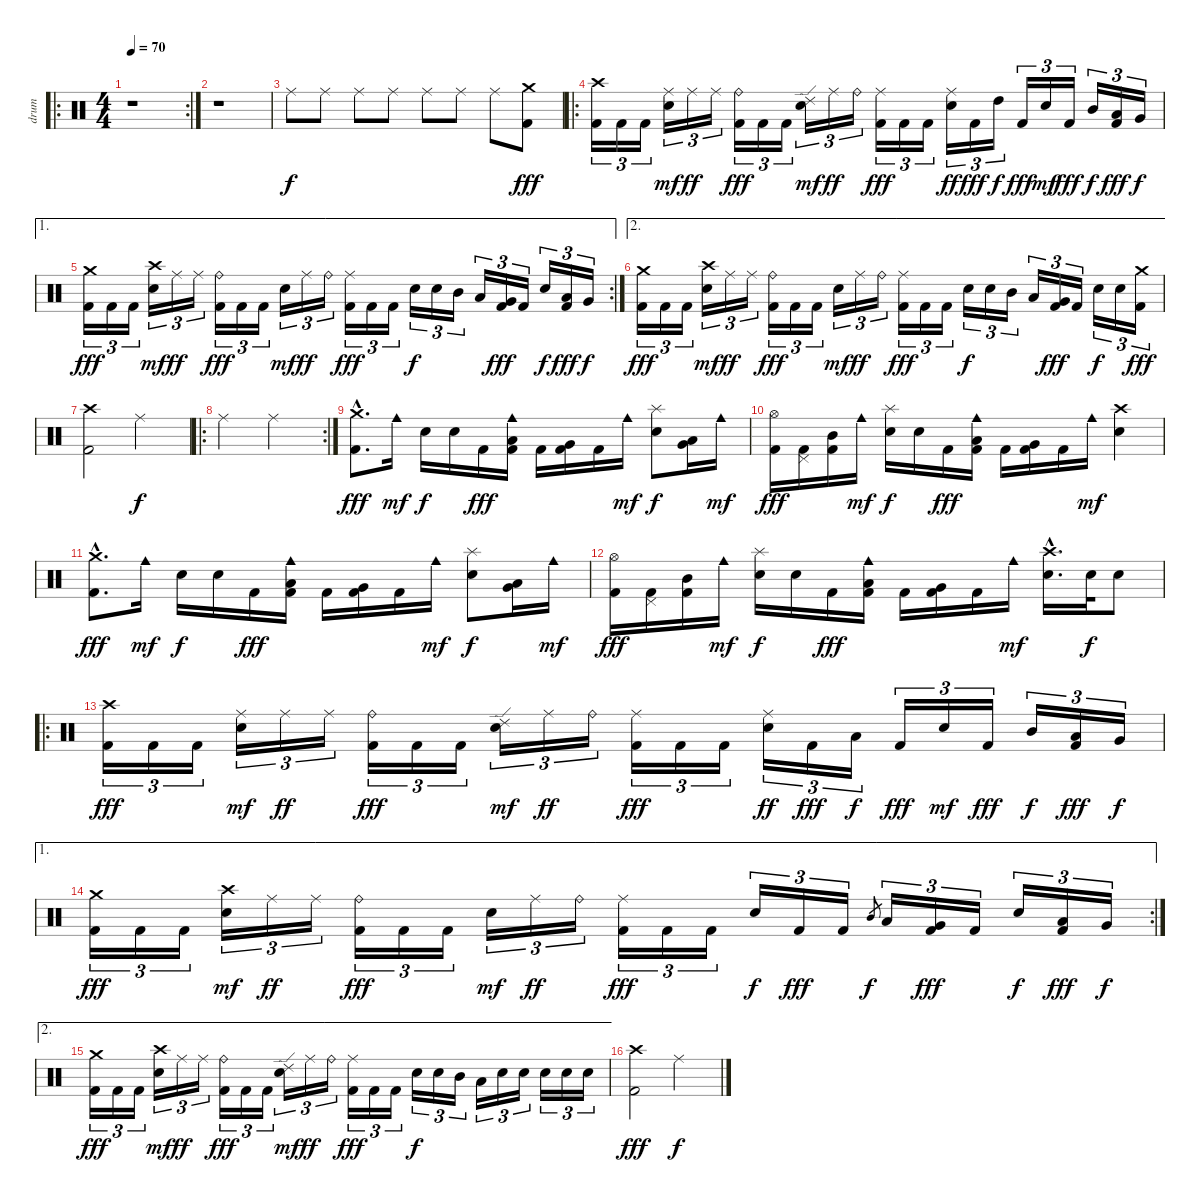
\track ("drum" "drum") {instrument percussion}
\staff {score}
\articulation defaults
\ro
\rc 2
\ts (4 4)
\tempo 70
\clef neutral
\ks c
r.1{dy f} |
r.1 |
"Ride (middle)".8 "Ride (middle)".8 "Ride (middle)".8 "Ride (middle)".8 "Ride (middle)".8 "Ride (middle)".8 "Ride (middle)".8 ("Crash medium (hit)" "Kick (hit) 2").8{dy fff} |
\ro
("Crash high (hit)" "Kick (hit) 2").16{tu (3 2)} "Kick (hit) 2".16{tu (3 2)} "Kick (hit) 2".16{tu (3 2)} ("Ride (middle)" "Electric Snare (hit)").16{tu (3 2) dy mf} "Ride (middle)".16{tu (3 2) dy ff} "Ride (middle)".16{tu (3 2)} ("Ride (bell)" "Kick (hit) 2").16{tu (3 2) dy fff} "Kick (hit) 2".16{tu (3 2)} "Kick (hit) 2".16{tu (3 2)} ("Ride (edge) 2" "Electric Snare (hit)").16{tu (3 2) dy mf} "Ride (middle)".16{tu (3 2) dy ff} "Ride (bell)".16{tu (3 2)} ("Ride (middle)" "Kick (hit) 2").16{tu (3 2) dy fff} "Kick (hit) 2".16{tu (3 2)} "Kick (hit) 2".16{tu (3 2)} ("Ride (middle)" "Electric Snare (hit)").16{tu (3 2) dy ff} "Kick (hit) 2".16{tu (3 2) dy fff} "High Tom (hit)".16{tu (3 2) dy f} "Kick (hit) 2".16{tu (3 2) dy fff} "Electric Snare (hit)".16{tu (3 2) dy mf} "Kick (hit) 2".16{tu (3 2) dy fff} "Mid Tom (hit)".16{tu (3 2) dy f} ("Low Tom (hit)" "Kick (hit) 2").16{tu (3 2) dy fff} "Very Low Tom (hit)".16{tu (3 2) dy f} |
\ae 1
\rc 2
("Crash medium (hit)" "Kick (hit) 2").16{tu (3 2) dy fff} "Kick (hit) 2".16{tu (3 2)} "Kick (hit) 2".16{tu (3 2)} ("Crash high (hit)" "Electric Snare (hit)").16{tu (3 2) dy mf} "Ride (middle)".16{tu (3 2) dy ff} "Ride (middle)".16{tu (3 2)} ("Ride (bell)" "Kick (hit) 2").16{tu (3 2) dy fff} "Kick (hit) 2".16{tu (3 2)} "Kick (hit) 2".16{tu (3 2)} "Electric Snare (hit)".16{tu (3 2) dy mf} "Ride (middle)".16{tu (3 2) dy ff} "Ride (bell)".16{tu (3 2)} ("Ride (middle)" "Kick (hit) 2").16{tu (3 2) dy fff} "Kick (hit) 2".16{tu (3 2)} "Kick (hit) 2".16{tu (3 2)} "Electric Snare (hit)".16{tu (3 2) dy f} "Electric Snare (hit)".16{tu (3 2)} "Mid Tom (hit)".16{tu (3 2)} "Low Tom (hit)".16{tu (3 2)} ("Very Low Tom (hit)" "Kick (hit) 2").16{tu (3 2) dy fff} "Kick (hit) 2".16{tu (3 2)} "Electric Snare (hit)".16{tu (3 2) dy f} ("Low Tom (hit)" "Kick (hit) 2").16{tu (3 2) dy fff} "Very Low Tom (hit)".16{tu (3 2) dy f} |
\ae 2
("Crash medium (hit)" "Kick (hit) 2").16{tu (3 2) dy fff} "Kick (hit) 2".16{tu (3 2)} "Kick (hit) 2".16{tu (3 2)} ("Crash high (hit)" "Electric Snare (hit)").16{tu (3 2) dy mf} "Ride (middle)".16{tu (3 2) dy ff} "Ride (middle)".16{tu (3 2)} ("Ride (bell)" "Kick (hit) 2").16{tu (3 2) dy fff} "Kick (hit) 2".16{tu (3 2)} "Kick (hit) 2".16{tu (3 2)} "Electric Snare (hit)".16{tu (3 2) dy mf} "Ride (middle)".16{tu (3 2) dy ff} "Ride (bell)".16{tu (3 2)} ("Ride (middle)" "Kick (hit) 2").16{tu (3 2) dy fff} "Kick (hit) 2".16{tu (3 2)} "Kick (hit) 2".16{tu (3 2)} "Electric Snare (hit)".16{tu (3 2) dy f} "Electric Snare (hit)".16{tu (3 2)} "Mid Tom (hit)".16{tu (3 2)} "Low Tom (hit)".16{tu (3 2)} ("Very Low Tom (hit)" "Kick (hit) 2").16{tu (3 2) dy fff} "Kick (hit) 2".16{tu (3 2)} "Electric Snare (hit)".16{tu (3 2) dy f} "Electric Snare (hit)".16{tu (3 2)} ("Crash medium (hit)" "Kick (hit) 2").16{tu (3 2) dy fff} |
("Crash high (hit)" "Kick (hit) 2").2 "Ride (middle)".2{dy f} |
\ro
\rc 2 "Ride (middle)".2 "Ride (middle)".2
|
("Crash medium (hit)"{hac} "Kick (hit) 2"{hac}).8{d dy fff} "Cowbell medium (hit)".16{dy mf} "Electric Snare (hit)".16{dy f} "Electric Snare (hit)".16 "Kick (hit) 2".16{dy fff} ("Cowbell medium (hit)" "Low Tom (hit)" "Kick (hit) 2").16 "Kick (hit) 2".16 ("Very Low Tom (hit)" "Kick (hit) 2").16 "Kick (hit) 2".16 "Cowbell medium (hit)".16{dy mf} ("Splash (hit)" "Electric Snare (hit)").8{dy f} ("Low Tom (hit)" "Very Low Tom (hit)").16 "Cowbell medium (hit)".16{dy mf} |
("Hi-Hat (open)" "Kick (hit) 2").16{dy fff} ("Pedal Hi-Hat (hit)" "Kick (hit) 2").16 ("Mid Tom (hit)" "Kick (hit) 2").16 "Cowbell medium (hit)".16{dy mf} ("Splash (hit)" "Electric Snare (hit)").16{dy f} "Electric Snare (hit)".16 "Kick (hit) 2".16{dy fff} ("Cowbell medium (hit)" "Low Tom (hit)" "Kick (hit) 2").16 "Kick (hit) 2".16 ("Very Low Tom (hit)" "Kick (hit) 2").16 "Kick (hit) 2".16 "Cowbell medium (hit)".16{dy mf} ("Crash high (hit)" "Electric Snare (hit)").4 |
("Crash medium (hit)"{hac} "Kick (hit) 2"{hac}).8{d dy fff} "Cowbell medium (hit)".16{dy mf} "Electric Snare (hit)".16{dy f} "Electric Snare (hit)".16 "Kick (hit) 2".16{dy fff} ("Cowbell medium (hit)" "Low Tom (hit)" "Kick (hit) 2").16 "Kick (hit) 2".16 ("Very Low Tom (hit)" "Kick (hit) 2").16 "Kick (hit) 2".16 "Cowbell medium (hit)".16{dy mf} ("Splash (hit)" "Electric Snare (hit)").8{dy f} ("Low Tom (hit)" "Very Low Tom (hit)").16 "Cowbell medium (hit)".16{dy mf} |
("Hi-Hat (open)" "Kick (hit) 2").16{dy fff} ("Pedal Hi-Hat (hit)" "Kick (hit) 2").16 ("Mid Tom (hit)" "Kick (hit) 2").16 "Cowbell medium (hit)".16{dy mf} ("Splash (hit)" "Electric Snare (hit)").16{dy f} "Electric Snare (hit)".16 "Kick (hit) 2".16{dy fff} ("Cowbell medium (hit)" "Low Tom (hit)" "Kick (hit) 2").16 "Kick (hit) 2".16 ("Very Low Tom (hit)" "Kick (hit) 2").16 "Kick (hit) 2".16 "Cowbell medium (hit)".16{dy mf} ("Crash high (hit)"{hac} "Electric Snare (hit)"{hac}).16{d} "Electric Snare (hit)".32{dy f} "Electric Snare (hit)".8 |
\ro
("Crash high (hit)" "Kick (hit) 2").16{tu (3 2) dy fff} "Kick (hit) 2".16{tu (3 2)} "Kick (hit) 2".16{tu (3 2)} ("Ride (middle)" "Electric Snare (hit)").16{tu (3 2) dy mf} "Ride (middle)".16{tu (3 2) dy ff} "Ride (middle)".16{tu (3 2)} ("Ride (bell)" "Kick (hit) 2").16{tu (3 2) dy fff} "Kick (hit) 2".16{tu (3 2)} "Kick (hit) 2".16{tu (3 2)} ("Ride (edge) 2" "Electric Snare (hit)").16{tu (3 2) dy mf} "Ride (middle)".16{tu (3 2) dy ff} "Ride (bell)".16{tu (3 2)} ("Ride (middle)" "Kick (hit) 2").16{tu (3 2) dy fff} "Kick (hit) 2".16{tu (3 2)} "Kick (hit) 2".16{tu (3 2)} ("Ride (middle)" "Electric Snare (hit)").16{tu (3 2) dy ff} "Kick (hit) 2".16{tu (3 2) dy fff} "Low Tom (hit)".16{tu (3 2) dy f} "Kick (hit) 2".16{tu (3 2) dy fff} "Electric Snare (hit)".16{tu (3 2) dy mf} "Kick (hit) 2".16{tu (3 2) dy fff} "Mid Tom (hit)".16{tu (3 2) dy f} ("Low Tom (hit)" "Kick (hit) 2").16{tu (3 2) dy fff} "Very Low Tom (hit)".16{tu (3 2) dy f} |
\ae 1
\rc 2
("Crash medium (hit)" "Kick (hit) 2").16{tu (3 2) dy fff} "Kick (hit) 2".16{tu (3 2)} "Kick (hit) 2".16{tu (3 2)} ("Crash high (hit)" "Electric Snare (hit)").16{tu (3 2) dy mf} "Ride (middle)".16{tu (3 2) dy ff} "Ride (middle)".16{tu (3 2)} ("Ride (bell)" "Kick (hit) 2").16{tu (3 2) dy fff} "Kick (hit) 2".16{tu (3 2)} "Kick (hit) 2".16{tu (3 2)} "Electric Snare (hit)".16{tu (3 2) dy mf} "Ride (middle)".16{tu (3 2) dy ff} "Ride (bell)".16{tu (3 2)} ("Ride (middle)" "Kick (hit) 2").16{tu (3 2) dy fff} "Kick (hit) 2".16{tu (3 2)} "Kick (hit) 2".16{tu (3 2)} "Electric Snare (hit)".16{tu (3 2) dy f} "Kick (hit) 2".16{tu (3 2) dy fff} "Kick (hit) 2".16{tu (3 2)} "Mid Tom (hit)".8{gr dy f} "Low Tom (hit)".16{tu (3 2)} ("Very Low Tom (hit)" "Kick (hit) 2").16{tu (3 2) dy fff} "Kick (hit) 2".16{tu (3 2)} "Electric Snare (hit)".16{tu (3 2) dy f} ("Low Tom (hit)" "Kick (hit) 2").16{tu (3 2) dy fff} "Very Low Tom (hit)".16{tu (3 2) dy f} |
\ae 2
("Crash medium (hit)" "Kick (hit) 2").16{tu (3 2) dy fff} "Kick (hit) 2".16{tu (3 2)} "Kick (hit) 2".16{tu (3 2)} ("Crash high (hit)" "Electric Snare (hit)").16{tu (3 2) dy mf} "Ride (middle)".16{tu (3 2) dy ff} "Ride (middle)".16{tu (3 2)} ("Ride (bell)" "Kick (hit) 2").16{tu (3 2) dy fff} "Kick (hit) 2".16{tu (3 2)} "Kick (hit) 2".16{tu (3 2)} ("Ride (edge) 2" "Electric Snare (hit)").16{tu (3 2) dy mf} "Ride (middle)".16{tu (3 2) dy ff} "Ride (bell)".16{tu (3 2)} ("Ride (middle)" "Kick (hit) 2").16{tu (3 2) dy fff} "Kick (hit) 2".16{tu (3 2)} "Kick (hit) 2".16{tu (3 2)} "Electric Snare (hit)".16{tu (3 2) dy f} "Electric Snare (hit)".16{tu (3 2)} "Mid Tom (hit)".16{tu (3 2)} "Low Tom (hit)".16{tu (3 2)} "Electric Snare (hit)".16{tu (3 2)} "Electric Snare (hit)".16{tu (3 2)} "Electric Snare (hit)".16{tu (3 2)} "Electric Snare (hit)".16{tu (3 2)} "Electric Snare (hit)".16{tu (3 2)} |
("Crash high (hit)" "Kick (hit) 2").2{dy fff} "Ride (middle)".2{dy f}
